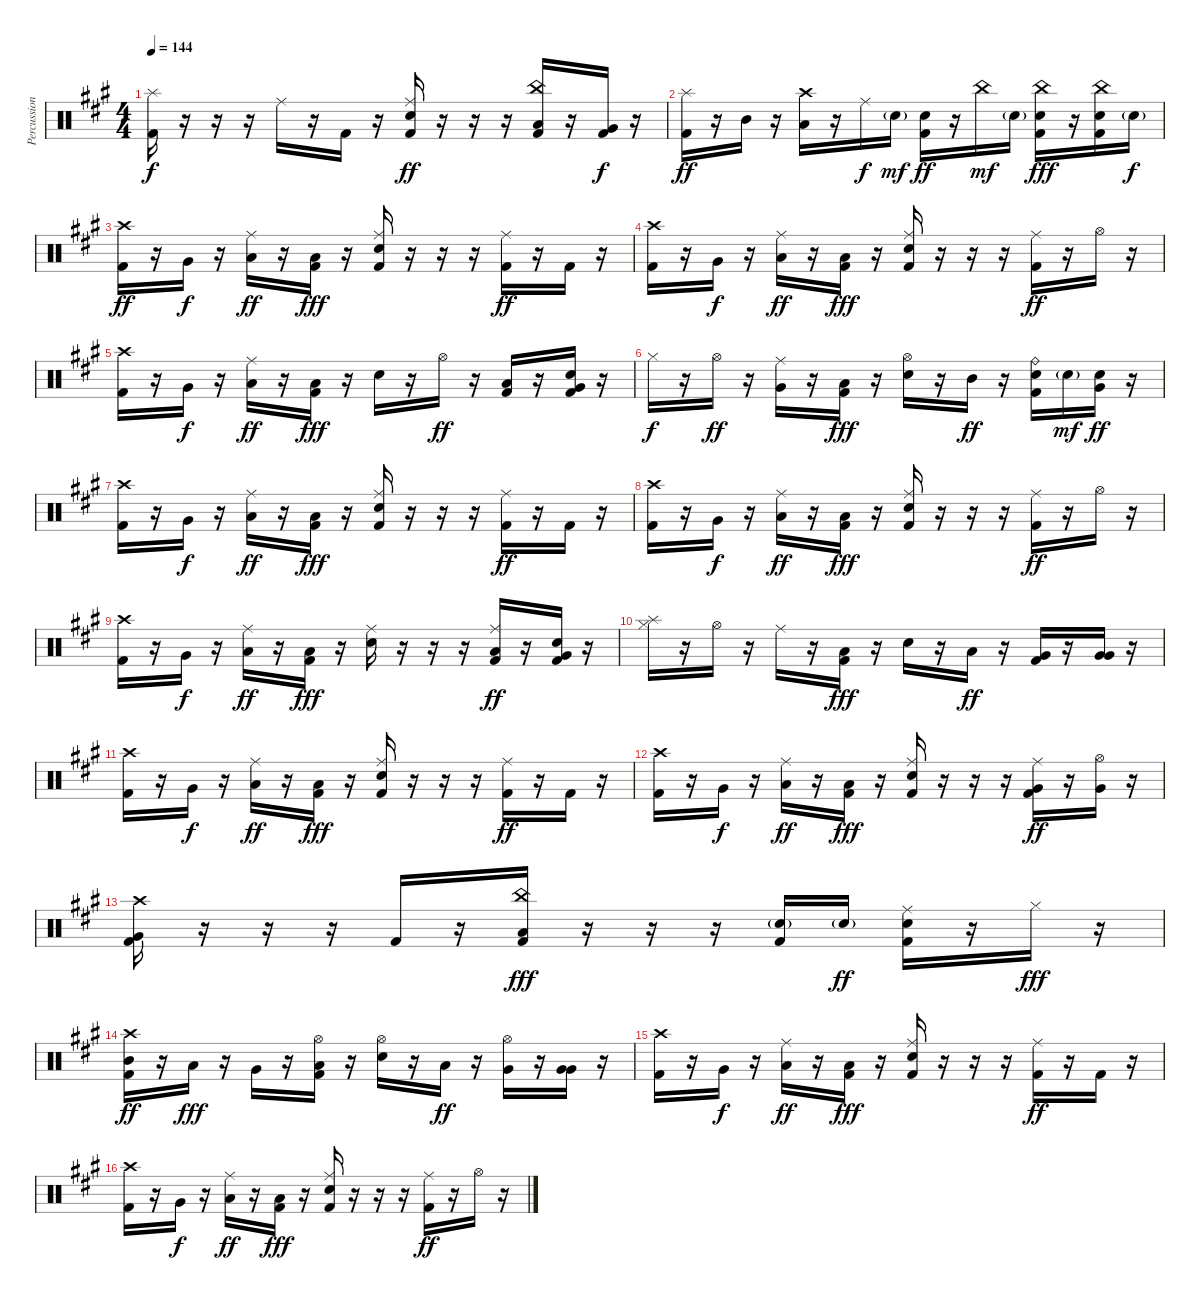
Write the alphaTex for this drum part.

\track ("Percussion" "Percussion") {instrument percussion}
\staff {score}
\articulation defaults
\ts (4 4)
\tempo 144
\clef neutral
\ks f#minor
("Splash (hit)" "Kick (hit) 2").16{dy f} r.16 r.16 r.16 "Ride (middle)".16 r.16 "Kick (hit) 2".16 r.16 ("Ride (middle)" "Snare (hit) 2" "Kick (hit) 2").16{dy ff} r.16 r.16 r.16 ("China (hit)" "Low Tom (hit)" "Kick (hit) 2").16 r.16 ("Very Low Tom (hit)" "Kick (hit) 2").16{dy f} r.16 |
("Splash (hit)" "Kick (hit) 2").16{dy ff} r.16 "Mid Tom (hit)".16 r.16 ("Crash high (hit)" "Low Tom (hit)").16 r.16 "Ride (middle)".16{dy f} "Snare (hit) 2"{g}.16{dy mf} ("Snare (hit) 2" "Kick (hit) 2").16{dy ff} r.16 "China (hit)".16{dy mf} "Snare (hit) 2"{g}.16 ("China (hit)" "Snare (hit) 2" "Kick (hit) 2").16{dy fff} r.16 ("China (hit)" "Snare (hit) 2" "Kick (hit) 2").16 "Snare (hit) 2"{g}.16{dy f} |
("Crash high (hit)" "Kick (hit) 2").16{dy ff} r.16 "Very Low Tom (hit)".16{dy f} r.16 ("Ride (middle)" "Low Floor Tom (hit)").16{dy ff} r.16 ("Low Floor Tom (hit)" "Kick (hit) 2").16{dy fff} r.16 ("Ride (middle)" "Snare (hit) 2" "Kick (hit) 2").16 r.16 r.16 r.16 ("Ride (middle)" "Kick (hit) 2").16{dy ff} r.16 "Kick (hit) 2".16 r.16 |
("Crash high (hit)" "Kick (hit) 2").16 r.16 "Very Low Tom (hit)".16{dy f} r.16 ("Ride (middle)" "Low Floor Tom (hit)").16{dy ff} r.16 ("Low Floor Tom (hit)" "Kick (hit) 2").16{dy fff} r.16 ("Ride (middle)" "Snare (hit) 2" "Kick (hit) 2").16 r.16 r.16 r.16 ("Ride (middle)" "Kick (hit) 2").16{dy ff} r.16 "Hi-Hat (open)".16 r.16 |
("Crash high (hit)" "Kick (hit) 2").16 r.16 "Very Low Tom (hit)".16{dy f} r.16 ("Ride (middle)" "Low Floor Tom (hit)").16{dy ff} r.16 ("Low Floor Tom (hit)" "Kick (hit) 2").16{dy fff} r.16 "Snare (hit) 2".16 r.16 "Hi-Hat (open)".16{dy ff} r.16 ("Low Tom (hit)" "Kick (hit) 2").16 r.16 ("Snare (hit) 2" "Very Low Tom (hit)" "Kick (hit) 2").16 r.16 |
"Hi-Hat (closed)".16{dy f} r.16 "Hi-Hat (open)".16{dy ff} r.16 ("Ride (middle)" "Very Low Tom (hit)").16 r.16 ("Low Tom (hit)" "Kick (hit) 2").16{dy fff} r.16 ("Hi-Hat (open)" "Snare (hit) 2").16 r.16 "Mid Tom (hit)".16{dy ff} r.16 ("Ride (bell)" "Snare (hit) 2" "Kick (hit) 2").16 "Snare (hit) 2"{g}.16{dy mf} ("Snare (hit) 2" "Very Low Tom (hit)").16{dy ff} r.16 |
("Crash high (hit)" "Kick (hit) 2").16 r.16 "Very Low Tom (hit)".16{dy f} r.16 ("Ride (middle)" "Low Floor Tom (hit)").16{dy ff} r.16 ("Low Floor Tom (hit)" "Kick (hit) 2").16{dy fff} r.16 ("Ride (middle)" "Snare (hit) 2" "Kick (hit) 2").16 r.16 r.16 r.16 ("Ride (middle)" "Kick (hit) 2").16{dy ff} r.16 "Kick (hit) 2".16 r.16 |
("Crash high (hit)" "Kick (hit) 2").16 r.16 "Very Low Tom (hit)".16{dy f} r.16 ("Ride (middle)" "Low Floor Tom (hit)").16{dy ff} r.16 ("Low Floor Tom (hit)" "Kick (hit) 2").16{dy fff} r.16 ("Ride (middle)" "Snare (hit) 2" "Kick (hit) 2").16 r.16 r.16 r.16 ("Ride (middle)" "Kick (hit) 2").16{dy ff} r.16 "Hi-Hat (open)".16 r.16 |
("Crash high (hit)" "Kick (hit) 2").16 r.16 "Very Low Tom (hit)".16{dy f} r.16 ("Ride (middle)" "Low Floor Tom (hit)").16{dy ff} r.16 ("Low Floor Tom (hit)" "Kick (hit) 2").16{dy fff} r.16 ("Ride (middle)" "Snare (hit) 2").16 r.16 r.16 r.16 ("Ride (middle)" "Low Tom (hit)" "Kick (hit) 2").16{dy ff} r.16 ("Snare (hit) 2" "Very Low Tom (hit)" "Kick (hit) 2").16 r.16 |
("Splash (hit)" "Hi-Hat (closed)").16 r.16 "Hi-Hat (open)".16 r.16 "Ride (middle)".16 r.16 ("Low Tom (hit)" "Kick (hit) 2").16{dy fff} r.16 "Snare (hit) 2".16 r.16 "Low Tom (hit)".16{dy ff} r.16 ("Very Low Tom (hit)" "Kick (hit) 2").16 r.16 ("Very Low Tom (hit)" "Very Low Tom (hit)").16 r.16 |
("Crash high (hit)" "Kick (hit) 2").16 r.16 "Very Low Tom (hit)".16{dy f} r.16 ("Ride (middle)" "Low Floor Tom (hit)").16{dy ff} r.16 ("Low Floor Tom (hit)" "Kick (hit) 2").16{dy fff} r.16 ("Ride (middle)" "Snare (hit) 2" "Kick (hit) 2").16 r.16 r.16 r.16 ("Ride (middle)" "Kick (hit) 2").16{dy ff} r.16 "Kick (hit) 2".16 r.16 |
("Crash high (hit)" "Kick (hit) 2").16 r.16 "Very Low Tom (hit)".16{dy f} r.16 ("Ride (middle)" "Low Floor Tom (hit)").16{dy ff} r.16 ("Low Floor Tom (hit)" "Kick (hit) 2").16{dy fff} r.16 ("Ride (middle)" "Snare (hit) 2" "Kick (hit) 2").16 r.16 r.16 r.16 ("Ride (middle)" "Very Low Tom (hit)" "Kick (hit) 2").16{dy ff} r.16 ("Hi-Hat (open)" "Very Low Tom (hit)").16 r.16 |
("Crash high (hit)" "Very Low Tom (hit)" "Kick (hit) 2").16 r.16 r.16 r.16 "Kick (hit) 2".16 r.16 ("China (hit)" "Low Floor Tom (hit)" "Kick (hit) 2").16{dy fff} r.16 r.16 r.16 ("Snare (hit) 2"{g} "Kick (hit) 2").16 "Snare (hit) 2"{g}.16{dy ff} ("Ride (middle)" "Snare (hit) 2" "Kick (hit) 2").16 r.16 "Hi-Hat (closed)".16{dy fff} r.16 |
("Crash high (hit)" "Mid Tom (hit)" "Kick (hit) 2").16{dy ff} r.16 "Low Tom (hit)".16{dy fff} r.16 "Very Low Tom (hit)".16 r.16 ("Hi-Hat (open)" "Low Tom (hit)" "Kick (hit) 2").16 r.16 ("Hi-Hat (open)" "Snare (hit) 2").16 r.16 "Low Tom (hit)".16{dy ff} r.16 ("Hi-Hat (open)" "Very Low Tom (hit)").16 r.16 ("Very Low Tom (hit)" "Very Low Tom (hit)").16 r.16 |
("Crash high (hit)" "Kick (hit) 2").16 r.16 "Very Low Tom (hit)".16{dy f} r.16 ("Ride (middle)" "Low Floor Tom (hit)").16{dy ff} r.16 ("Low Floor Tom (hit)" "Kick (hit) 2").16{dy fff} r.16 ("Ride (middle)" "Snare (hit) 2" "Kick (hit) 2").16 r.16 r.16 r.16 ("Ride (middle)" "Kick (hit) 2").16{dy ff} r.16 "Kick (hit) 2".16 r.16 |
("Crash high (hit)" "Kick (hit) 2").16 r.16 "Very Low Tom (hit)".16{dy f} r.16 ("Ride (middle)" "Low Floor Tom (hit)").16{dy ff} r.16 ("Low Floor Tom (hit)" "Kick (hit) 2").16{dy fff} r.16 ("Ride (middle)" "Snare (hit) 2" "Kick (hit) 2").16 r.16 r.16 r.16 ("Ride (middle)" "Kick (hit) 2").16{dy ff} r.16 "Hi-Hat (open)".16 r.16
